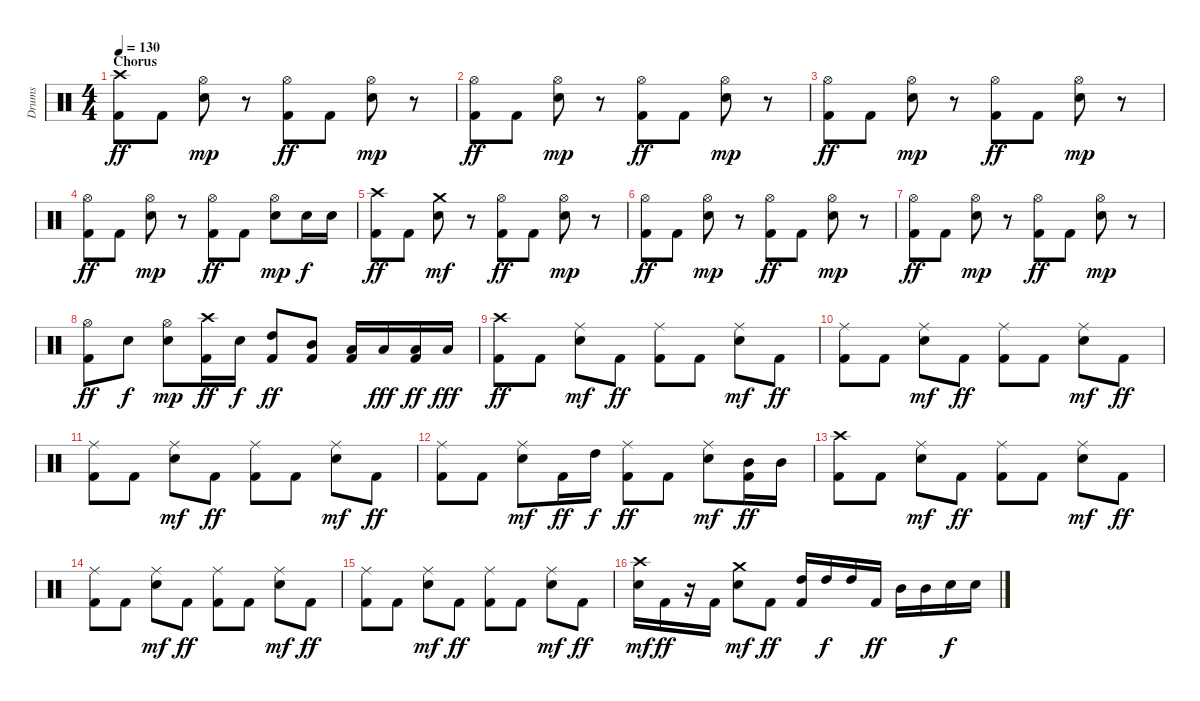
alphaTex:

\track ("Drums" "Drums") {instrument percussion}
\staff {score}
\articulation defaults
\ts (4 4)
\section ("" "Chorus")
\tempo 130
\clef neutral
\ks c
("Crash high (hit)" "Kick (hit) 2").8{dy ff} "Kick (hit) 2".8 ("Hi-Hat (open)" "Electric Snare (hit)").8{dy mp} r.8 ("Hi-Hat (open)" "Kick (hit) 2").8{dy ff} "Kick (hit) 2".8 ("Hi-Hat (open)" "Electric Snare (hit)").8{dy mp} r.8 |
("Hi-Hat (open)" "Kick (hit) 2").8{dy ff} "Kick (hit) 2".8 ("Hi-Hat (open)" "Electric Snare (hit)").8{dy mp} r.8 ("Hi-Hat (open)" "Kick (hit) 2").8{dy ff} "Kick (hit) 2".8 ("Hi-Hat (open)" "Electric Snare (hit)").8{dy mp} r.8 |
("Hi-Hat (open)" "Kick (hit) 2").8{dy ff} "Kick (hit) 2".8 ("Hi-Hat (open)" "Electric Snare (hit)").8{dy mp} r.8 ("Hi-Hat (open)" "Kick (hit) 2").8{dy ff} "Kick (hit) 2".8 ("Hi-Hat (open)" "Electric Snare (hit)").8{dy mp} r.8 |
("Hi-Hat (open)" "Kick (hit) 2").8{dy ff} "Kick (hit) 2".8 ("Hi-Hat (open)" "Electric Snare (hit)").8{dy mp} r.8 ("Hi-Hat (open)" "Kick (hit) 2").8{dy ff} "Kick (hit) 2".8 ("Hi-Hat (open)" "Electric Snare (hit)").8{dy mp} "Electric Snare (hit)".16{dy f} "Electric Snare (hit)".16 |
("Crash high (hit)" "Kick (hit) 2").8{dy ff} "Kick (hit) 2".8 ("Crash medium (hit)" "Electric Snare (hit)").8{dy mf} r.8 ("Hi-Hat (open)" "Kick (hit) 2").8{dy ff} "Kick (hit) 2".8 ("Hi-Hat (open)" "Electric Snare (hit)").8{dy mp} r.8 |
("Hi-Hat (open)" "Kick (hit) 2").8{dy ff} "Kick (hit) 2".8 ("Hi-Hat (open)" "Electric Snare (hit)").8{dy mp} r.8 ("Hi-Hat (open)" "Kick (hit) 2").8{dy ff} "Kick (hit) 2".8 ("Hi-Hat (open)" "Electric Snare (hit)").8{dy mp} r.8 |
("Hi-Hat (open)" "Kick (hit) 2").8{dy ff} "Kick (hit) 2".8 ("Hi-Hat (open)" "Electric Snare (hit)").8{dy mp} r.8 ("Hi-Hat (open)" "Kick (hit) 2").8{dy ff} "Kick (hit) 2".8 ("Hi-Hat (open)" "Electric Snare (hit)").8{dy mp} r.8 |
("Hi-Hat (open)" "Kick (hit) 2").8{dy ff} "Electric Snare (hit)".8{dy f} ("Hi-Hat (open)" "Electric Snare (hit)").8{dy mp} ("Crash high (hit)" "Kick (hit) 2").16{dy ff} "Electric Snare (hit)".16{dy f} ("High Tom (hit)" "Kick (hit) 2").8{dy ff} ("Mid Tom (hit)" "Kick (hit) 2").8 ("Low Tom (hit)" "Kick (hit) 2").16 "Low Tom (hit)".16{dy fff} ("Low Tom (hit)" "Kick (hit) 2").16{dy ff} "Low Tom (hit)".16{dy fff} |
\section ("" "")
("Crash high (hit)" "Kick (hit) 2").8{dy ff} "Kick (hit) 2".8 ("Ride (middle)" "Electric Snare (hit)").8{dy mf} "Kick (hit) 2".8{dy ff} ("Ride (middle)" "Kick (hit) 2").8 "Kick (hit) 2".8 ("Ride (middle)" "Electric Snare (hit)").8{dy mf} "Kick (hit) 2".8{dy ff} |
("Ride (middle)" "Kick (hit) 2").8 "Kick (hit) 2".8 ("Ride (middle)" "Electric Snare (hit)").8{dy mf} "Kick (hit) 2".8{dy ff} ("Ride (middle)" "Kick (hit) 2").8 "Kick (hit) 2".8 ("Ride (middle)" "Electric Snare (hit)").8{dy mf} "Kick (hit) 2".8{dy ff} |
("Ride (middle)" "Kick (hit) 2").8 "Kick (hit) 2".8 ("Ride (middle)" "Electric Snare (hit)").8{dy mf} "Kick (hit) 2".8{dy ff} ("Ride (middle)" "Kick (hit) 2").8 "Kick (hit) 2".8 ("Ride (middle)" "Electric Snare (hit)").8{dy mf} "Kick (hit) 2".8{dy ff} |
("Ride (middle)" "Kick (hit) 2").8 "Kick (hit) 2".8 ("Ride (middle)" "Electric Snare (hit)").8{dy mf} "Kick (hit) 2".16{dy ff} "High Tom (hit)".16{dy f} ("Ride (middle)" "Kick (hit) 2").8{dy ff} "Kick (hit) 2".8 ("Ride (middle)" "Electric Snare (hit)").8{dy mf} ("Mid Tom (hit)" "Kick (hit) 2").16{dy ff} "Mid Tom (hit)".16 |
("Crash high (hit)" "Kick (hit) 2").8 "Kick (hit) 2".8 ("Ride (middle)" "Electric Snare (hit)").8{dy mf} "Kick (hit) 2".8{dy ff} ("Ride (middle)" "Kick (hit) 2").8 "Kick (hit) 2".8 ("Ride (middle)" "Electric Snare (hit)").8{dy mf} "Kick (hit) 2".8{dy ff} |
("Ride (middle)" "Kick (hit) 2").8 "Kick (hit) 2".8 ("Ride (middle)" "Electric Snare (hit)").8{dy mf} "Kick (hit) 2".8{dy ff} ("Ride (middle)" "Kick (hit) 2").8 "Kick (hit) 2".8 ("Ride (middle)" "Electric Snare (hit)").8{dy mf} "Kick (hit) 2".8{dy ff} |
("Ride (middle)" "Kick (hit) 2").8 "Kick (hit) 2".8 ("Ride (middle)" "Electric Snare (hit)").8{dy mf} "Kick (hit) 2".8{dy ff} ("Ride (middle)" "Kick (hit) 2").8 "Kick (hit) 2".8 ("Ride (middle)" "Electric Snare (hit)").8{dy mf} "Kick (hit) 2".8{dy ff} |
("Crash high (hit)" "Electric Snare (hit)").16{dy mf} "Kick (hit) 2".16{dy ff} r.16 "Kick (hit) 2".16 ("Crash medium (hit)" "Electric Snare (hit)").8{dy mf} "Kick (hit) 2".8{dy ff} ("High Tom (hit)" "Kick (hit) 2").16 "High Tom (hit)".16{dy f} "High Tom (hit)".16 "Kick (hit) 2".16{dy ff} "Mid Tom (hit)".16 "Mid Tom (hit)".16 "Electric Snare (hit)".16{dy f} "Electric Snare (hit)".16
